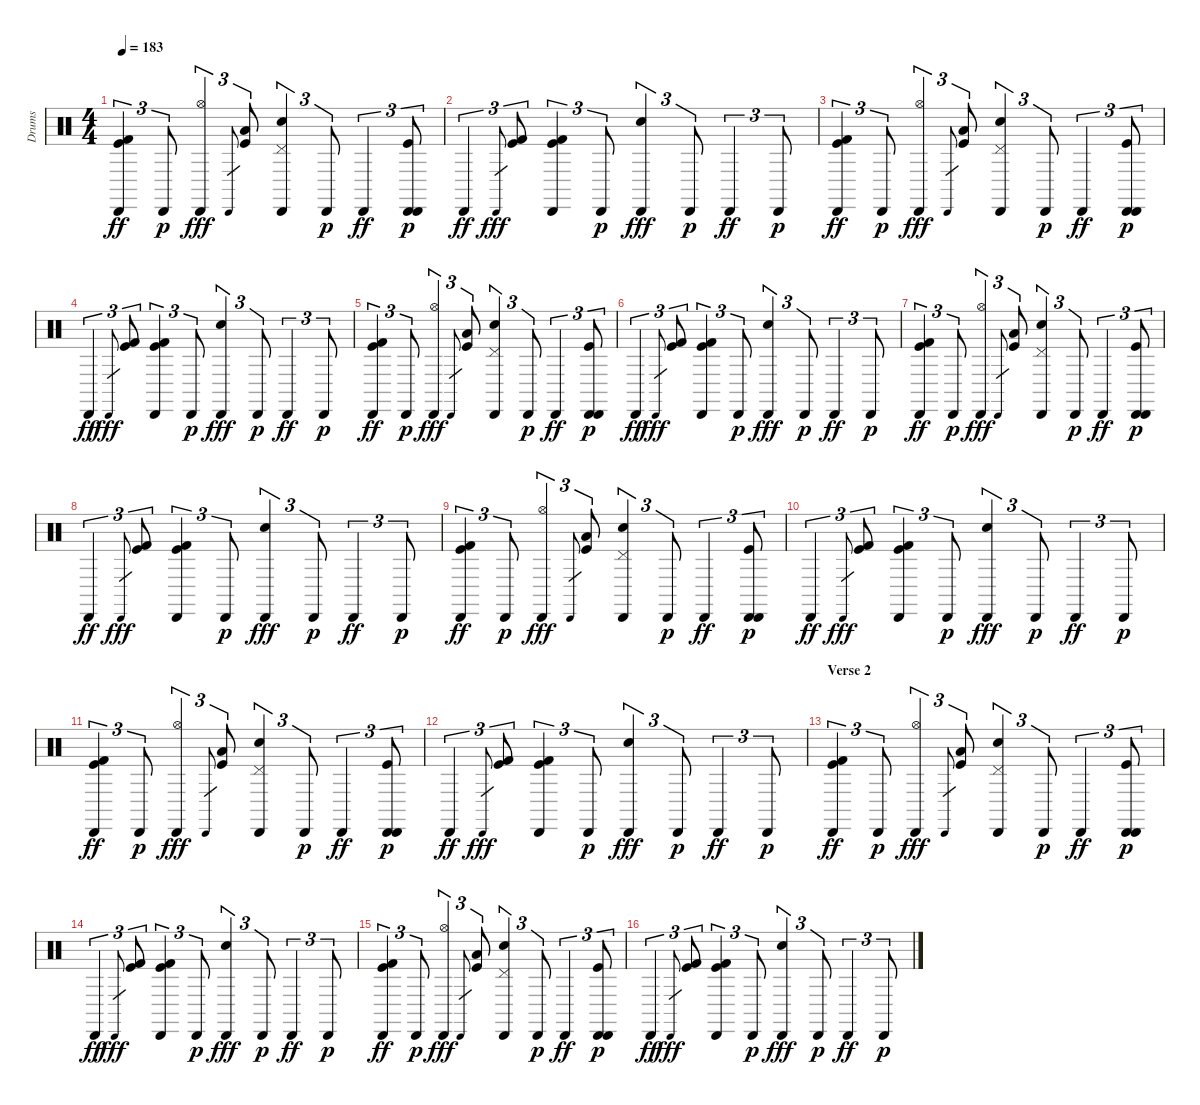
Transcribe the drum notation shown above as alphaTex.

\track ("Drums" "Drums") {instrument percussion}
\staff {score}
\articulation defaults
\ts (4 4)
\tempo 183
\clef neutral
\ks c
("Kick (hit) 2" "Kick (hit)" "Cabasa (hit)").4{tu (3 2) dy ff} "Cabasa (hit)".8{tu (3 2) dy p} ("Cabasa (hit)" "Hi-Hat (open)").4{tu (3 2) dy fff} "Cabasa (hit)".8{gr} ("Kick (hit)" "Low Floor Tom (hit)").8{tu (3 2)} ("Cabasa (hit)" "Electric Snare (hit)" "Pedal Hi-Hat (hit)").4{tu (3 2)} "Cabasa (hit)".8{tu (3 2) dy p} "Cabasa (hit)".4{tu (3 2) dy ff} ("Cabasa (hit)" "Kick (hit)" "Cabasa (hit)").8{tu (3 2) dy p} |
"Cabasa (hit)".4{tu (3 2) dy ff} "Cabasa (hit)".8{gr dy fff} ("Kick (hit)" "Kick (hit) 2").8{tu (3 2)} ("Cabasa (hit)" "Kick (hit)" "Kick (hit) 2").4{tu (3 2)} "Cabasa (hit)".8{tu (3 2) dy p} ("Cabasa (hit)" "Electric Snare (hit)").4{tu (3 2) dy fff} "Cabasa (hit)".8{tu (3 2) dy p} "Cabasa (hit)".4{tu (3 2) dy ff} "Cabasa (hit)".8{tu (3 2) dy p} |
("Kick (hit) 2" "Kick (hit)" "Cabasa (hit)").4{tu (3 2) dy ff} "Cabasa (hit)".8{tu (3 2) dy p} ("Cabasa (hit)" "Hi-Hat (open)").4{tu (3 2) dy fff} "Cabasa (hit)".8{gr} ("Kick (hit)" "Low Floor Tom (hit)").8{tu (3 2)} ("Cabasa (hit)" "Electric Snare (hit)" "Pedal Hi-Hat (hit)").4{tu (3 2)} "Cabasa (hit)".8{tu (3 2) dy p} "Cabasa (hit)".4{tu (3 2) dy ff} ("Cabasa (hit)" "Kick (hit)" "Cabasa (hit)").8{tu (3 2) dy p} |
"Cabasa (hit)".4{tu (3 2) dy ff} "Cabasa (hit)".8{gr dy fff} ("Kick (hit)" "Kick (hit) 2").8{tu (3 2)} ("Cabasa (hit)" "Kick (hit)" "Kick (hit) 2").4{tu (3 2)} "Cabasa (hit)".8{tu (3 2) dy p} ("Cabasa (hit)" "Electric Snare (hit)").4{tu (3 2) dy fff} "Cabasa (hit)".8{tu (3 2) dy p} "Cabasa (hit)".4{tu (3 2) dy ff} "Cabasa (hit)".8{tu (3 2) dy p} |
("Kick (hit) 2" "Kick (hit)" "Cabasa (hit)").4{tu (3 2) dy ff} "Cabasa (hit)".8{tu (3 2) dy p} ("Cabasa (hit)" "Hi-Hat (open)").4{tu (3 2) dy fff} "Cabasa (hit)".8{gr} ("Kick (hit)" "Low Floor Tom (hit)").8{tu (3 2)} ("Cabasa (hit)" "Electric Snare (hit)" "Pedal Hi-Hat (hit)").4{tu (3 2)} "Cabasa (hit)".8{tu (3 2) dy p} "Cabasa (hit)".4{tu (3 2) dy ff} ("Cabasa (hit)" "Kick (hit)" "Cabasa (hit)").8{tu (3 2) dy p} |
"Cabasa (hit)".4{tu (3 2) dy ff} "Cabasa (hit)".8{gr dy fff} ("Kick (hit)" "Kick (hit) 2").8{tu (3 2)} ("Cabasa (hit)" "Kick (hit)" "Kick (hit) 2").4{tu (3 2)} "Cabasa (hit)".8{tu (3 2) dy p} ("Cabasa (hit)" "Electric Snare (hit)").4{tu (3 2) dy fff} "Cabasa (hit)".8{tu (3 2) dy p} "Cabasa (hit)".4{tu (3 2) dy ff} "Cabasa (hit)".8{tu (3 2) dy p} |
("Kick (hit) 2" "Kick (hit)" "Cabasa (hit)").4{tu (3 2) dy ff} "Cabasa (hit)".8{tu (3 2) dy p} ("Cabasa (hit)" "Hi-Hat (open)").4{tu (3 2) dy fff} "Cabasa (hit)".8{gr} ("Kick (hit)" "Low Floor Tom (hit)").8{tu (3 2)} ("Cabasa (hit)" "Electric Snare (hit)" "Pedal Hi-Hat (hit)").4{tu (3 2)} "Cabasa (hit)".8{tu (3 2) dy p} "Cabasa (hit)".4{tu (3 2) dy ff} ("Cabasa (hit)" "Kick (hit)" "Cabasa (hit)").8{tu (3 2) dy p} |
"Cabasa (hit)".4{tu (3 2) dy ff} "Cabasa (hit)".8{gr dy fff} ("Kick (hit)" "Kick (hit) 2").8{tu (3 2)} ("Cabasa (hit)" "Kick (hit)" "Kick (hit) 2").4{tu (3 2)} "Cabasa (hit)".8{tu (3 2) dy p} ("Cabasa (hit)" "Electric Snare (hit)").4{tu (3 2) dy fff} "Cabasa (hit)".8{tu (3 2) dy p} "Cabasa (hit)".4{tu (3 2) dy ff} "Cabasa (hit)".8{tu (3 2) dy p} |
("Kick (hit) 2" "Kick (hit)" "Cabasa (hit)").4{tu (3 2) dy ff} "Cabasa (hit)".8{tu (3 2) dy p} ("Cabasa (hit)" "Hi-Hat (open)").4{tu (3 2) dy fff} "Cabasa (hit)".8{gr} ("Kick (hit)" "Low Floor Tom (hit)").8{tu (3 2)} ("Cabasa (hit)" "Electric Snare (hit)" "Pedal Hi-Hat (hit)").4{tu (3 2)} "Cabasa (hit)".8{tu (3 2) dy p} "Cabasa (hit)".4{tu (3 2) dy ff} ("Cabasa (hit)" "Kick (hit)" "Cabasa (hit)").8{tu (3 2) dy p} |
"Cabasa (hit)".4{tu (3 2) dy ff} "Cabasa (hit)".8{gr dy fff} ("Kick (hit)" "Kick (hit) 2").8{tu (3 2)} ("Cabasa (hit)" "Kick (hit)" "Kick (hit) 2").4{tu (3 2)} "Cabasa (hit)".8{tu (3 2) dy p} ("Cabasa (hit)" "Electric Snare (hit)").4{tu (3 2) dy fff} "Cabasa (hit)".8{tu (3 2) dy p} "Cabasa (hit)".4{tu (3 2) dy ff} "Cabasa (hit)".8{tu (3 2) dy p} |
("Kick (hit) 2" "Kick (hit)" "Cabasa (hit)").4{tu (3 2) dy ff} "Cabasa (hit)".8{tu (3 2) dy p} ("Cabasa (hit)" "Hi-Hat (open)").4{tu (3 2) dy fff} "Cabasa (hit)".8{gr} ("Kick (hit)" "Low Floor Tom (hit)").8{tu (3 2)} ("Cabasa (hit)" "Electric Snare (hit)" "Pedal Hi-Hat (hit)").4{tu (3 2)} "Cabasa (hit)".8{tu (3 2) dy p} "Cabasa (hit)".4{tu (3 2) dy ff} ("Cabasa (hit)" "Kick (hit)" "Cabasa (hit)").8{tu (3 2) dy p} |
"Cabasa (hit)".4{tu (3 2) dy ff} "Cabasa (hit)".8{gr dy fff} ("Kick (hit)" "Kick (hit) 2").8{tu (3 2)} ("Cabasa (hit)" "Kick (hit)" "Kick (hit) 2").4{tu (3 2)} "Cabasa (hit)".8{tu (3 2) dy p} ("Cabasa (hit)" "Electric Snare (hit)").4{tu (3 2) dy fff} "Cabasa (hit)".8{tu (3 2) dy p} "Cabasa (hit)".4{tu (3 2) dy ff} "Cabasa (hit)".8{tu (3 2) dy p} |
\section ("" "Verse 2")
("Kick (hit) 2" "Kick (hit)" "Cabasa (hit)").4{tu (3 2) dy ff} "Cabasa (hit)".8{tu (3 2) dy p} ("Cabasa (hit)" "Hi-Hat (open)").4{tu (3 2) dy fff} "Cabasa (hit)".8{gr} ("Kick (hit)" "Low Floor Tom (hit)").8{tu (3 2)} ("Cabasa (hit)" "Electric Snare (hit)" "Pedal Hi-Hat (hit)").4{tu (3 2)} "Cabasa (hit)".8{tu (3 2) dy p} "Cabasa (hit)".4{tu (3 2) dy ff} ("Cabasa (hit)" "Kick (hit)" "Cabasa (hit)").8{tu (3 2) dy p} |
"Cabasa (hit)".4{tu (3 2) dy ff} "Cabasa (hit)".8{gr dy fff} ("Kick (hit)" "Kick (hit) 2").8{tu (3 2)} ("Cabasa (hit)" "Kick (hit)" "Kick (hit) 2").4{tu (3 2)} "Cabasa (hit)".8{tu (3 2) dy p} ("Cabasa (hit)" "Electric Snare (hit)").4{tu (3 2) dy fff} "Cabasa (hit)".8{tu (3 2) dy p} "Cabasa (hit)".4{tu (3 2) dy ff} "Cabasa (hit)".8{tu (3 2) dy p} |
("Kick (hit) 2" "Kick (hit)" "Cabasa (hit)").4{tu (3 2) dy ff} "Cabasa (hit)".8{tu (3 2) dy p} ("Cabasa (hit)" "Hi-Hat (open)").4{tu (3 2) dy fff} "Cabasa (hit)".8{gr} ("Kick (hit)" "Low Floor Tom (hit)").8{tu (3 2)} ("Cabasa (hit)" "Electric Snare (hit)" "Pedal Hi-Hat (hit)").4{tu (3 2)} "Cabasa (hit)".8{tu (3 2) dy p} "Cabasa (hit)".4{tu (3 2) dy ff} ("Cabasa (hit)" "Kick (hit)" "Cabasa (hit)").8{tu (3 2) dy p} |
"Cabasa (hit)".4{tu (3 2) dy ff} "Cabasa (hit)".8{gr dy fff} ("Kick (hit)" "Kick (hit) 2").8{tu (3 2)} ("Cabasa (hit)" "Kick (hit)" "Kick (hit) 2").4{tu (3 2)} "Cabasa (hit)".8{tu (3 2) dy p} ("Cabasa (hit)" "Electric Snare (hit)").4{tu (3 2) dy fff} "Cabasa (hit)".8{tu (3 2) dy p} "Cabasa (hit)".4{tu (3 2) dy ff} "Cabasa (hit)".8{tu (3 2) dy p}
